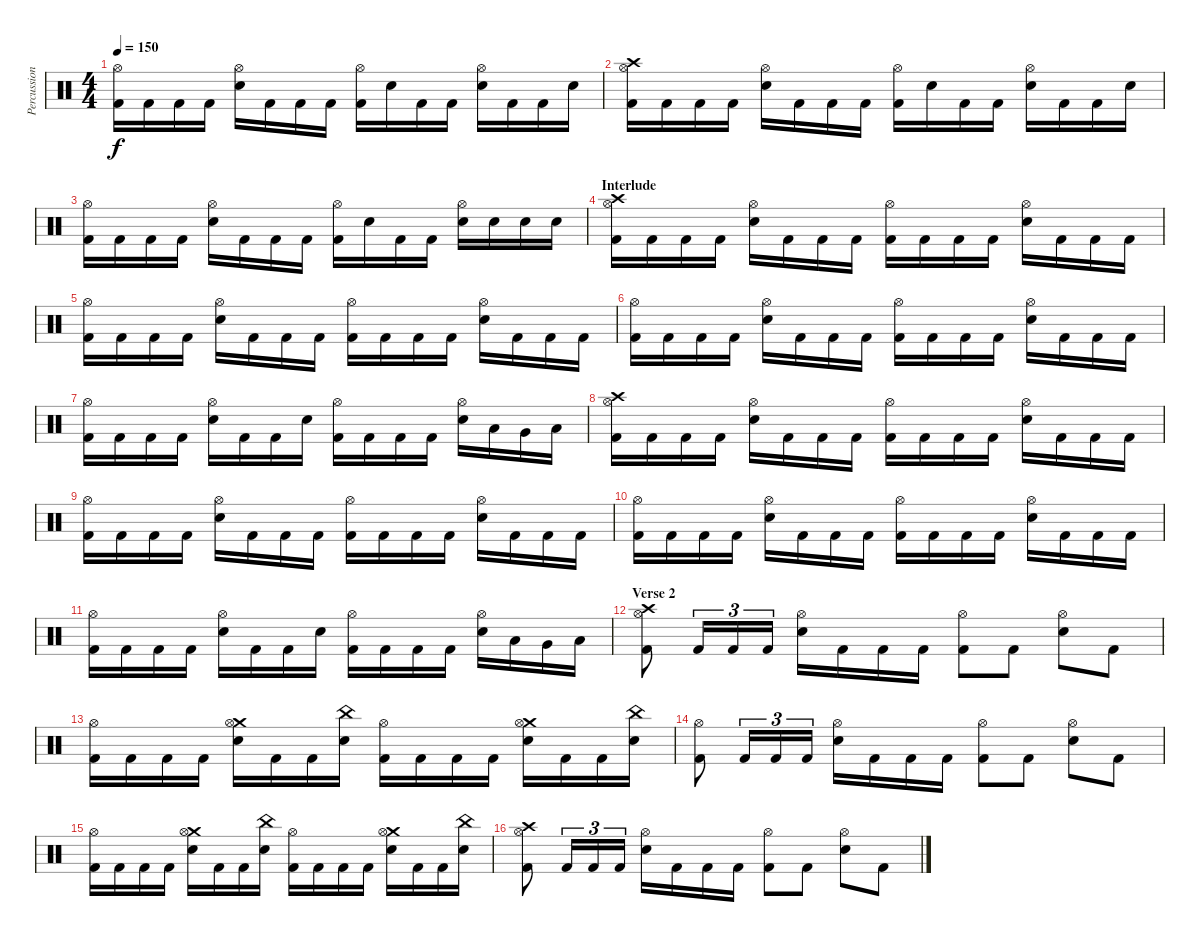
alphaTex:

\track ("Percussions" "Percussion") {instrument percussion}
\staff {score}
\articulation defaults
\ts (4 4)
\tempo 150
\clef neutral
\ks c
("Hi-Hat (open)" "Kick (hit) 2").16{dy f} "Kick (hit) 2".16 "Kick (hit) 2".16 "Kick (hit) 2".16 ("Hi-Hat (open)" "Electric Snare (hit)").16 "Kick (hit) 2".16 "Kick (hit) 2".16 "Kick (hit) 2".16 ("Hi-Hat (open)" "Kick (hit) 2").16 "Electric Snare (hit)".16 "Kick (hit) 2".16 "Kick (hit) 2".16 ("Hi-Hat (open)" "Electric Snare (hit)").16 "Kick (hit) 2".16 "Kick (hit) 2".16 "Electric Snare (hit)".16 |
("Crash high (hit)" "Hi-Hat (open)" "Kick (hit) 2").16 "Kick (hit) 2".16 "Kick (hit) 2".16 "Kick (hit) 2".16 ("Hi-Hat (open)" "Electric Snare (hit)").16 "Kick (hit) 2".16 "Kick (hit) 2".16 "Kick (hit) 2".16 ("Hi-Hat (open)" "Kick (hit) 2").16 "Electric Snare (hit)".16 "Kick (hit) 2".16 "Kick (hit) 2".16 ("Hi-Hat (open)" "Electric Snare (hit)").16 "Kick (hit) 2".16 "Kick (hit) 2".16 "Electric Snare (hit)".16 |
("Hi-Hat (open)" "Kick (hit) 2").16 "Kick (hit) 2".16 "Kick (hit) 2".16 "Kick (hit) 2".16 ("Hi-Hat (open)" "Electric Snare (hit)").16 "Kick (hit) 2".16 "Kick (hit) 2".16 "Kick (hit) 2".16 ("Hi-Hat (open)" "Kick (hit) 2").16 "Electric Snare (hit)".16 "Kick (hit) 2".16 "Kick (hit) 2".16 ("Hi-Hat (open)" "Electric Snare (hit)").16 "Electric Snare (hit)".16 "Electric Snare (hit)".16 "Electric Snare (hit)".16 |
\section ("" "Interlude")
("Crash high (hit)" "Hi-Hat (open)" "Kick (hit) 2").16 "Kick (hit) 2".16 "Kick (hit) 2".16 "Kick (hit) 2".16 ("Hi-Hat (open)" "Electric Snare (hit)").16 "Kick (hit) 2".16 "Kick (hit) 2".16 "Kick (hit) 2".16 ("Hi-Hat (open)" "Kick (hit) 2").16 "Kick (hit) 2".16 "Kick (hit) 2".16 "Kick (hit) 2".16 ("Hi-Hat (open)" "Electric Snare (hit)").16 "Kick (hit) 2".16 "Kick (hit) 2".16 "Kick (hit) 2".16 |
("Hi-Hat (open)" "Kick (hit) 2").16 "Kick (hit) 2".16 "Kick (hit) 2".16 "Kick (hit) 2".16 ("Hi-Hat (open)" "Electric Snare (hit)").16 "Kick (hit) 2".16 "Kick (hit) 2".16 "Kick (hit) 2".16 ("Hi-Hat (open)" "Kick (hit) 2").16 "Kick (hit) 2".16 "Kick (hit) 2".16 "Kick (hit) 2".16 ("Hi-Hat (open)" "Electric Snare (hit)").16 "Kick (hit) 2".16 "Kick (hit) 2".16 "Kick (hit) 2".16 |
("Hi-Hat (open)" "Kick (hit) 2").16 "Kick (hit) 2".16 "Kick (hit) 2".16 "Kick (hit) 2".16 ("Hi-Hat (open)" "Electric Snare (hit)").16 "Kick (hit) 2".16 "Kick (hit) 2".16 "Kick (hit) 2".16 ("Hi-Hat (open)" "Kick (hit) 2").16 "Kick (hit) 2".16 "Kick (hit) 2".16 "Kick (hit) 2".16 ("Hi-Hat (open)" "Electric Snare (hit)").16 "Kick (hit) 2".16 "Kick (hit) 2".16 "Kick (hit) 2".16 |
("Hi-Hat (open)" "Kick (hit) 2").16 "Kick (hit) 2".16 "Kick (hit) 2".16 "Kick (hit) 2".16 ("Hi-Hat (open)" "Electric Snare (hit)").16 "Kick (hit) 2".16 "Kick (hit) 2".16 "Electric Snare (hit)".16 ("Hi-Hat (open)" "Kick (hit) 2").16 "Kick (hit) 2".16 "Kick (hit) 2".16 "Kick (hit) 2".16 ("Hi-Hat (open)" "Electric Snare (hit)").16 "Low Tom (hit)".16 "Very Low Tom (hit)".16 "Low Floor Tom (hit)".16 |
("Crash high (hit)" "Hi-Hat (open)" "Kick (hit) 2").16 "Kick (hit) 2".16 "Kick (hit) 2".16 "Kick (hit) 2".16 ("Hi-Hat (open)" "Electric Snare (hit)").16 "Kick (hit) 2".16 "Kick (hit) 2".16 "Kick (hit) 2".16 ("Hi-Hat (open)" "Kick (hit) 2").16 "Kick (hit) 2".16 "Kick (hit) 2".16 "Kick (hit) 2".16 ("Hi-Hat (open)" "Electric Snare (hit)").16 "Kick (hit) 2".16 "Kick (hit) 2".16 "Kick (hit) 2".16 |
("Hi-Hat (open)" "Kick (hit) 2").16 "Kick (hit) 2".16 "Kick (hit) 2".16 "Kick (hit) 2".16 ("Hi-Hat (open)" "Electric Snare (hit)").16 "Kick (hit) 2".16 "Kick (hit) 2".16 "Kick (hit) 2".16 ("Hi-Hat (open)" "Kick (hit) 2").16 "Kick (hit) 2".16 "Kick (hit) 2".16 "Kick (hit) 2".16 ("Hi-Hat (open)" "Electric Snare (hit)").16 "Kick (hit) 2".16 "Kick (hit) 2".16 "Kick (hit) 2".16 |
("Hi-Hat (open)" "Kick (hit) 2").16 "Kick (hit) 2".16 "Kick (hit) 2".16 "Kick (hit) 2".16 ("Hi-Hat (open)" "Electric Snare (hit)").16 "Kick (hit) 2".16 "Kick (hit) 2".16 "Kick (hit) 2".16 ("Hi-Hat (open)" "Kick (hit) 2").16 "Kick (hit) 2".16 "Kick (hit) 2".16 "Kick (hit) 2".16 ("Hi-Hat (open)" "Electric Snare (hit)").16 "Kick (hit) 2".16 "Kick (hit) 2".16 "Kick (hit) 2".16 |
("Hi-Hat (open)" "Kick (hit) 2").16 "Kick (hit) 2".16 "Kick (hit) 2".16 "Kick (hit) 2".16 ("Hi-Hat (open)" "Electric Snare (hit)").16 "Kick (hit) 2".16 "Kick (hit) 2".16 "Electric Snare (hit)".16 ("Hi-Hat (open)" "Kick (hit) 2").16 "Kick (hit) 2".16 "Kick (hit) 2".16 "Kick (hit) 2".16 ("Hi-Hat (open)" "Electric Snare (hit)").16 "Low Tom (hit)".16 "Very Low Tom (hit)".16 "Low Floor Tom (hit)".16 |
\section ("" "Verse 2")
("Crash high (hit)" "Hi-Hat (open)" "Kick (hit) 2").8 "Kick (hit) 2".16{tu (3 2)} "Kick (hit) 2".16{tu (3 2)} "Kick (hit) 2".16{tu (3 2)} ("Hi-Hat (open)" "Electric Snare (hit)").16 "Kick (hit) 2".16 "Kick (hit) 2".16 "Kick (hit) 2".16 ("Hi-Hat (open)" "Kick (hit) 2").8 "Kick (hit) 2".8 ("Hi-Hat (open)" "Electric Snare (hit)").8 "Kick (hit) 2".8 |
("Hi-Hat (open)" "Kick (hit) 2").16 "Kick (hit) 2".16 "Kick (hit) 2".16 "Kick (hit) 2".16 ("Crash medium (hit)" "Hi-Hat (open)" "Electric Snare (hit)").16 "Kick (hit) 2".16 "Kick (hit) 2".16 ("China (hit)" "Electric Snare (hit)").16 ("Hi-Hat (open)" "Kick (hit) 2").16 "Kick (hit) 2".16 "Kick (hit) 2".16 "Kick (hit) 2".16 ("Crash medium (hit)" "Hi-Hat (open)" "Electric Snare (hit)").16 "Kick (hit) 2".16 "Kick (hit) 2".16 ("China (hit)" "Electric Snare (hit)").16 |
("Hi-Hat (open)" "Kick (hit) 2").8 "Kick (hit) 2".16{tu (3 2)} "Kick (hit) 2".16{tu (3 2)} "Kick (hit) 2".16{tu (3 2)} ("Hi-Hat (open)" "Electric Snare (hit)").16 "Kick (hit) 2".16 "Kick (hit) 2".16 "Kick (hit) 2".16 ("Hi-Hat (open)" "Kick (hit) 2").8 "Kick (hit) 2".8 ("Hi-Hat (open)" "Electric Snare (hit)").8 "Kick (hit) 2".8 |
("Hi-Hat (open)" "Kick (hit) 2").16 "Kick (hit) 2".16 "Kick (hit) 2".16 "Kick (hit) 2".16 ("Crash medium (hit)" "Hi-Hat (open)" "Electric Snare (hit)").16 "Kick (hit) 2".16 "Kick (hit) 2".16 ("China (hit)" "Electric Snare (hit)").16 ("Hi-Hat (open)" "Kick (hit) 2").16 "Kick (hit) 2".16 "Kick (hit) 2".16 "Kick (hit) 2".16 ("Crash medium (hit)" "Hi-Hat (open)" "Electric Snare (hit)").16 "Kick (hit) 2".16 "Kick (hit) 2".16 ("China (hit)" "Electric Snare (hit)").16 |
("Crash high (hit)" "Hi-Hat (open)" "Kick (hit) 2").8 "Kick (hit) 2".16{tu (3 2)} "Kick (hit) 2".16{tu (3 2)} "Kick (hit) 2".16{tu (3 2)} ("Hi-Hat (open)" "Electric Snare (hit)").16 "Kick (hit) 2".16 "Kick (hit) 2".16 "Kick (hit) 2".16 ("Hi-Hat (open)" "Kick (hit) 2").8 "Kick (hit) 2".8 ("Hi-Hat (open)" "Electric Snare (hit)").8 "Kick (hit) 2".8
